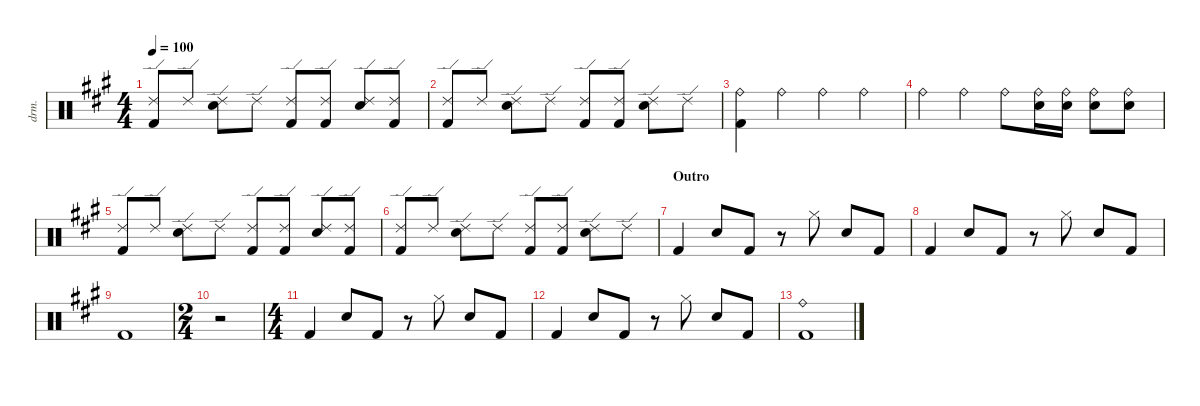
\defaultSystemsLayout 4
\hideDynamics
\bracketExtendMode nobrackets
\track ("Drums" "drm.") {instrument percussion}
\staff {score}
\articulation defaults
\ts (4 4)
\tempo 100
\clef neutral
\ks a
("Ride (edge) 2"{acc forcenatural} "Kick (hit) 2"{acc forcenatural}).8{dy f} "Ride (edge) 2"{acc forcenatural}.8 ("Ride (edge) 2"{acc forcenatural} "Snare (hit) 2"{acc forcenatural}).8 "Ride (edge) 2"{acc forcenatural}.8 ("Ride (edge) 2"{acc forcenatural} "Kick (hit) 2"{acc forcenatural}).8 ("Ride (edge) 2"{acc forcenatural} "Kick (hit) 2"{acc forcenatural}).8 ("Ride (edge) 2"{acc forcenatural} "Snare (hit) 2"{acc forcenatural}).8 ("Ride (edge) 2"{acc forcenatural} "Kick (hit) 2"{acc forcenatural}).8 |
("Ride (edge) 2"{acc forcenatural} "Kick (hit) 2"{acc forcenatural}).8 "Ride (edge) 2"{acc forcenatural}.8 ("Ride (edge) 2"{acc forcenatural} "Snare (hit) 2"{acc forcenatural}).8 "Ride (edge) 2"{acc forcenatural}.8 ("Ride (edge) 2"{acc forcenatural} "Kick (hit) 2"{acc forcenatural}).8 ("Ride (edge) 2"{acc forcenatural} "Kick (hit) 2"{acc forcenatural}).8 ("Ride (edge) 2"{acc forcenatural} "Snare (hit) 2"{acc forcenatural}).8 "Ride (edge) 2"{acc forcenatural}.8 |
("Ride (bell)"{acc forcenatural} "Kick (hit) 2"{acc forcenatural}).4 "Ride (bell)"{acc forcenatural}.4 "Ride (bell)"{acc forcenatural}.4 "Ride (bell)"{acc forcenatural}.4 |
"Ride (bell)"{acc forcenatural}.4 "Ride (bell)"{acc forcenatural}.4 "Ride (bell)"{acc forcenatural}.8 ("Ride (bell)"{acc forcenatural} "Snare (hit) 2"{acc forcenatural}).16 ("Ride (bell)"{acc forcenatural} "Snare (hit) 2"{acc forcenatural}).16 ("Ride (bell)"{acc forcenatural} "Snare (hit) 2"{acc forcenatural}).8 ("Ride (bell)"{acc forcenatural} "Snare (hit) 2"{acc forcenatural}).8 |
("Ride (edge) 2"{acc forcenatural} "Kick (hit) 2"{acc forcenatural}).8 "Ride (edge) 2"{acc forcenatural}.8 ("Ride (edge) 2"{acc forcenatural} "Snare (hit) 2"{acc forcenatural}).8 "Ride (edge) 2"{acc forcenatural}.8 ("Ride (edge) 2"{acc forcenatural} "Kick (hit) 2"{acc forcenatural}).8 ("Ride (edge) 2"{acc forcenatural} "Kick (hit) 2"{acc forcenatural}).8 ("Ride (edge) 2"{acc forcenatural} "Snare (hit) 2"{acc forcenatural}).8 ("Ride (edge) 2"{acc forcenatural} "Kick (hit) 2"{acc forcenatural}).8 |
("Ride (edge) 2"{acc forcenatural} "Kick (hit) 2"{acc forcenatural}).8 "Ride (edge) 2"{acc forcenatural}.8 ("Ride (edge) 2"{acc forcenatural} "Snare (hit) 2"{acc forcenatural}).8 "Ride (edge) 2"{acc forcenatural}.8 ("Ride (edge) 2"{acc forcenatural} "Kick (hit) 2"{acc forcenatural}).8 ("Ride (edge) 2"{acc forcenatural} "Kick (hit) 2"{acc forcenatural}).8 ("Ride (edge) 2"{acc forcenatural} "Snare (hit) 2"{acc forcenatural}).8 "Ride (edge) 2"{acc forcenatural}.8 |
\section ("" "Outro")
"Kick (hit) 2"{acc forcenatural}.4 "Snare (hit) 2"{acc forcenatural}.8 "Kick (hit) 2"{acc forcenatural}.8 r.8 "Hi-Hat (closed)"{acc forcenatural}.8 "Snare (hit) 2"{acc forcenatural}.8 "Kick (hit) 2"{acc forcenatural}.8 |
"Kick (hit) 2"{acc forcenatural}.4 "Snare (hit) 2"{acc forcenatural}.8 "Kick (hit) 2"{acc forcenatural}.8 r.8 "Hi-Hat (closed)"{acc forcenatural}.8 "Snare (hit) 2"{acc forcenatural}.8 "Kick (hit) 2"{acc forcenatural}.8 |
"Kick (hit) 2"{acc forcenatural}.1 |
\ts (2 4)
r.2 |
\ts (4 4)
"Kick (hit) 2"{acc forcenatural}.4 "Snare (hit) 2"{acc forcenatural}.8 "Kick (hit) 2"{acc forcenatural}.8 r.8 "Hi-Hat (closed)"{acc forcenatural}.8 "Snare (hit) 2"{acc forcenatural}.8 "Kick (hit) 2"{acc forcenatural}.8 |
"Kick (hit) 2"{acc forcenatural}.4 "Snare (hit) 2"{acc forcenatural}.8 "Kick (hit) 2"{acc forcenatural}.8 r.8 "Hi-Hat (closed)"{acc forcenatural}.8 "Snare (hit) 2"{acc forcenatural}.8 "Kick (hit) 2"{acc forcenatural}.8 |
("Ride (bell)"{acc forcenatural} "Kick (hit) 2"{acc forcenatural}).1
